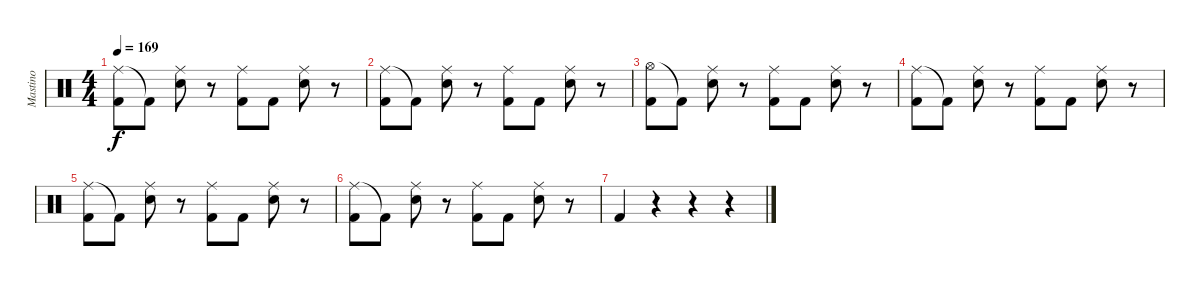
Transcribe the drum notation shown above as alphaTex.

\track ("Mastino" "Mastino") {instrument percussion}
\staff {score}
\articulation defaults
\ts (4 4)
\tempo 169
\clef neutral
\ks c
("Ride (middle)" "Kick (hit) 2").8{dy f} "Kick (hit) 2"{t}.8 ("Ride (middle)" "Electric Snare (hit)").8 r.8 ("Ride (middle)" "Kick (hit) 2").8 "Kick (hit) 2".8 ("Ride (middle)" "Electric Snare (hit)").8 r.8 |
("Ride (middle)" "Kick (hit) 2").8 "Kick (hit) 2"{t}.8 ("Ride (middle)" "Electric Snare (hit)").8 r.8 ("Ride (middle)" "Kick (hit) 2").8 "Kick (hit) 2".8 ("Ride (middle)" "Electric Snare (hit)").8 r.8 |
("Hi-Hat (open)" "Kick (hit) 2").8 "Kick (hit) 2"{t}.8 ("Ride (middle)" "Electric Snare (hit)").8 r.8 ("Ride (middle)" "Kick (hit) 2").8 "Kick (hit) 2".8 ("Ride (middle)" "Electric Snare (hit)").8 r.8 |
("Ride (middle)" "Kick (hit) 2").8 "Kick (hit) 2"{t}.8 ("Ride (middle)" "Electric Snare (hit)").8 r.8 ("Ride (middle)" "Kick (hit) 2").8 "Kick (hit) 2".8 ("Ride (middle)" "Electric Snare (hit)").8 r.8 |
("Ride (middle)" "Kick (hit) 2").8 "Kick (hit) 2"{t}.8 ("Ride (middle)" "Electric Snare (hit)").8 r.8 ("Ride (middle)" "Kick (hit) 2").8 "Kick (hit) 2".8 ("Ride (middle)" "Electric Snare (hit)").8 r.8 |
("Ride (middle)" "Kick (hit) 2").8 "Kick (hit) 2"{t}.8 ("Ride (middle)" "Electric Snare (hit)").8 r.8 ("Ride (middle)" "Kick (hit) 2").8 "Kick (hit) 2".8 ("Ride (middle)" "Electric Snare (hit)").8 r.8 |
"Kick (hit) 2".4 r.4 r.4 r.4
